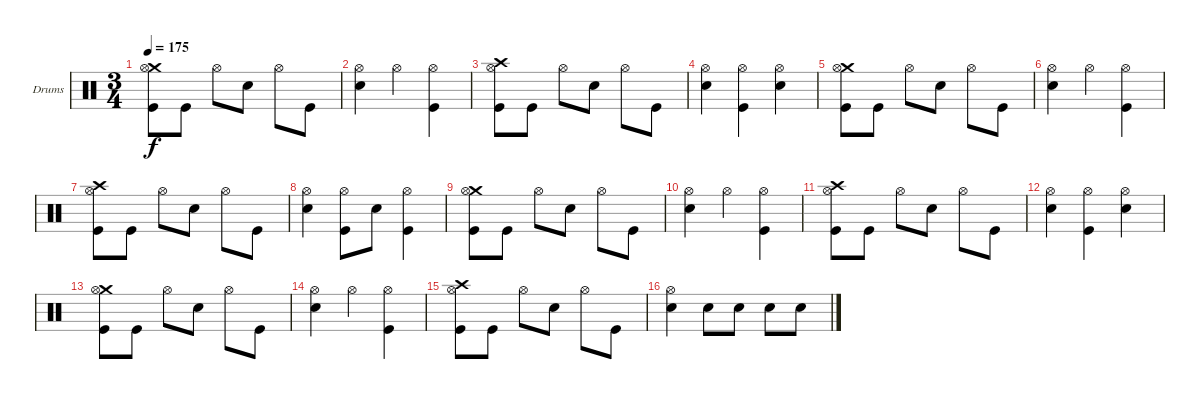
\bracketExtendMode groupsimilarinstruments
\firstSystemTrackNameOrientation horizontal
\otherSystemsTrackNameOrientation horizontal
\track ("Drums" "Drums") {instrument percussion}
\staff {score}
\articulation defaults
\ts (3 4)
\tempo 175
\clef neutral
\ks c
("Crash medium (hit)" "Hi-Hat (open)" "Kick (hit)").8{dy f} "Kick (hit)".8 "Hi-Hat (open)".8 "Snare (hit) 2".8 "Hi-Hat (open)".8 "Kick (hit)".8 |
("Hi-Hat (open)" "Snare (hit) 2").4 "Hi-Hat (open)".4 ("Hi-Hat (open)" "Kick (hit)").4 |
("Crash high (hit)" "Hi-Hat (open)" "Kick (hit)").8 "Kick (hit)".8 "Hi-Hat (open)".8 "Snare (hit) 2".8 "Hi-Hat (open)".8 "Kick (hit)".8 |
("Hi-Hat (open)" "Snare (hit) 2").4 ("Hi-Hat (open)" "Kick (hit)").4 ("Hi-Hat (open)" "Snare (hit) 2").4 |
("Crash medium (hit)" "Hi-Hat (open)" "Kick (hit)").8 "Kick (hit)".8 "Hi-Hat (open)".8 "Snare (hit) 2".8 "Hi-Hat (open)".8 "Kick (hit)".8 |
("Hi-Hat (open)" "Snare (hit) 2").4 "Hi-Hat (open)".4 ("Hi-Hat (open)" "Kick (hit)").4 |
("Crash high (hit)" "Hi-Hat (open)" "Kick (hit)").8 "Kick (hit)".8 "Hi-Hat (open)".8 "Snare (hit) 2".8 "Hi-Hat (open)".8 "Kick (hit)".8 |
("Hi-Hat (open)" "Snare (hit) 2").4 ("Hi-Hat (open)" "Kick (hit)").8 "Snare (hit) 2".8 ("Hi-Hat (open)" "Kick (hit)").4 |
("Crash medium (hit)" "Hi-Hat (open)" "Kick (hit)").8 "Kick (hit)".8 "Hi-Hat (open)".8 "Snare (hit) 2".8 "Hi-Hat (open)".8 "Kick (hit)".8 |
("Hi-Hat (open)" "Snare (hit) 2").4 "Hi-Hat (open)".4 ("Hi-Hat (open)" "Kick (hit)").4 |
("Crash high (hit)" "Hi-Hat (open)" "Kick (hit)").8 "Kick (hit)".8 "Hi-Hat (open)".8 "Snare (hit) 2".8 "Hi-Hat (open)".8 "Kick (hit)".8 |
("Hi-Hat (open)" "Snare (hit) 2").4 ("Hi-Hat (open)" "Kick (hit)").4 ("Hi-Hat (open)" "Snare (hit) 2").4 |
("Crash medium (hit)" "Hi-Hat (open)" "Kick (hit)").8 "Kick (hit)".8 "Hi-Hat (open)".8 "Snare (hit) 2".8 "Hi-Hat (open)".8 "Kick (hit)".8 |
("Hi-Hat (open)" "Snare (hit) 2").4 "Hi-Hat (open)".4 ("Hi-Hat (open)" "Kick (hit)").4 |
("Crash high (hit)" "Hi-Hat (open)" "Kick (hit)").8 "Kick (hit)".8 "Hi-Hat (open)".8 "Snare (hit) 2".8 "Hi-Hat (open)".8 "Kick (hit)".8 |
("Hi-Hat (open)" "Snare (hit) 2").4 "Snare (hit) 2".8 "Snare (hit) 2".8 "Snare (hit) 2".8 "Snare (hit) 2".8
